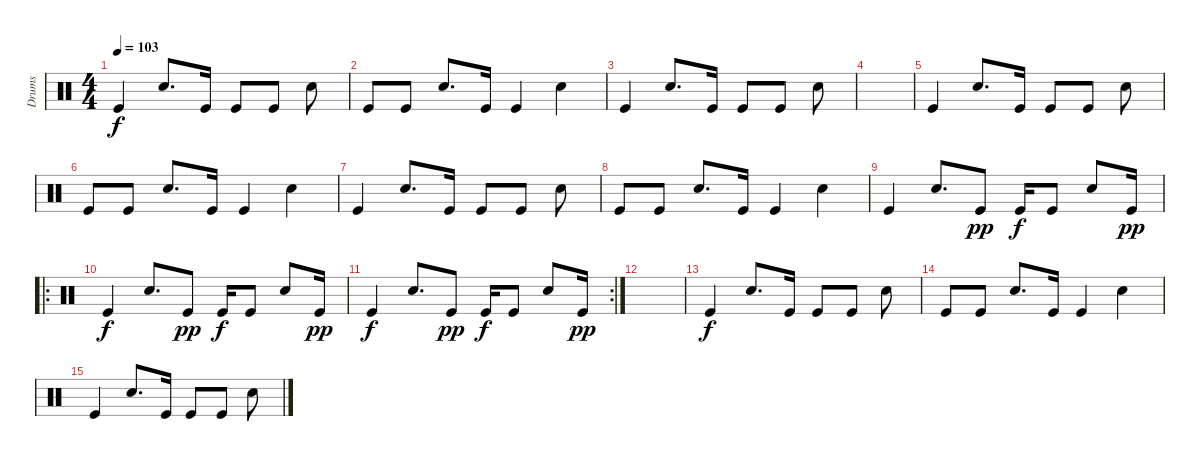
\track ("Drums" "Drums") {instrument percussion}
\staff {score}
\articulation defaults
\ts (4 4)
\tempo 103
\clef neutral
\ks c "Kick (hit)".4{dy f} "Snare (hit) 2".8{d} "Kick (hit)".16 "Kick (hit)".8 "Kick (hit)".8 "Snare (hit) 2".8
|
"Kick (hit)".8 "Kick (hit)".8 "Snare (hit) 2".8{d} "Kick (hit)".16 "Kick (hit)".4 "Snare (hit) 2".4 |
"Kick (hit)".4 "Snare (hit) 2".8{d} "Kick (hit)".16 "Kick (hit)".8 "Kick (hit)".8 "Snare (hit) 2".8 |
|
"Kick (hit)".4 "Snare (hit) 2".8{d} "Kick (hit)".16 "Kick (hit)".8 "Kick (hit)".8 "Snare (hit) 2".8 |
"Kick (hit)".8 "Kick (hit)".8 "Snare (hit) 2".8{d} "Kick (hit)".16 "Kick (hit)".4 "Snare (hit) 2".4 |
"Kick (hit)".4 "Snare (hit) 2".8{d} "Kick (hit)".16 "Kick (hit)".8 "Kick (hit)".8 "Snare (hit) 2".8 |
"Kick (hit)".8 "Kick (hit)".8 "Snare (hit) 2".8{d} "Kick (hit)".16 "Kick (hit)".4 "Snare (hit) 2".4 |
"Kick (hit)".4 "Snare (hit) 2".8{d} "Kick (hit)".8{dy pp} "Kick (hit)".16{dy f} "Kick (hit)".8 "Snare (hit) 2".8 "Kick (hit)".16{dy pp} |
\ro "Kick (hit)".4{dy f} "Snare (hit) 2".8{d} "Kick (hit)".8{dy pp} "Kick (hit)".16{dy f} "Kick (hit)".8 "Snare (hit) 2".8 "Kick (hit)".16{dy pp}
|
\rc 2 "Kick (hit)".4{dy f} "Snare (hit) 2".8{d} "Kick (hit)".8{dy pp} "Kick (hit)".16{dy f} "Kick (hit)".8 "Snare (hit) 2".8 "Kick (hit)".16{dy pp}
|
|
"Kick (hit)".4{dy f} "Snare (hit) 2".8{d} "Kick (hit)".16 "Kick (hit)".8 "Kick (hit)".8 "Snare (hit) 2".8 |
"Kick (hit)".8 "Kick (hit)".8 "Snare (hit) 2".8{d} "Kick (hit)".16 "Kick (hit)".4 "Snare (hit) 2".4 |
"Kick (hit)".4 "Snare (hit) 2".8{d} "Kick (hit)".16 "Kick (hit)".8 "Kick (hit)".8 "Snare (hit) 2".8
